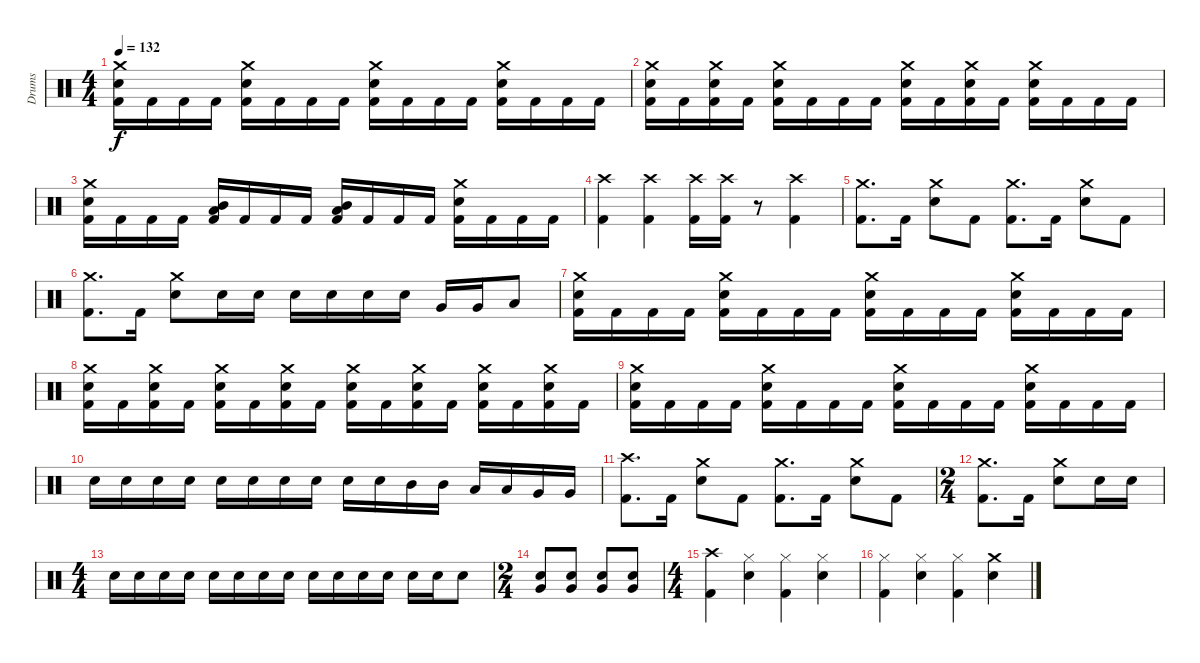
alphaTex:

\track ("Drums" "Drums") {instrument percussion}
\staff {score}
\articulation defaults
\ts (4 4)
\tempo 132
\clef neutral
\ks c
("Crash medium (hit)" "Snare (hit) 2" "Kick (hit) 2").16{dy f} "Kick (hit) 2".16 "Kick (hit) 2".16 "Kick (hit) 2".16 ("Crash medium (hit)" "Snare (hit) 2" "Kick (hit) 2").16 "Kick (hit) 2".16 "Kick (hit) 2".16 "Kick (hit) 2".16 ("Crash medium (hit)" "Snare (hit) 2" "Kick (hit) 2").16 "Kick (hit) 2".16 "Kick (hit) 2".16 "Kick (hit) 2".16 ("Crash medium (hit)" "Snare (hit) 2" "Kick (hit) 2").16 "Kick (hit) 2".16 "Kick (hit) 2".16 "Kick (hit) 2".16 |
("Crash medium (hit)" "Snare (hit) 2" "Kick (hit) 2").16 "Kick (hit) 2".16 ("Crash medium (hit)" "Snare (hit) 2" "Kick (hit) 2").16 "Kick (hit) 2".16 ("Crash medium (hit)" "Snare (hit) 2" "Kick (hit) 2").16 "Kick (hit) 2".16 "Kick (hit) 2".16 "Kick (hit) 2".16 ("Crash medium (hit)" "Snare (hit) 2" "Kick (hit) 2").16 "Kick (hit) 2".16 ("Crash medium (hit)" "Snare (hit) 2" "Kick (hit) 2").16 "Kick (hit) 2".16 ("Crash medium (hit)" "Snare (hit) 2" "Kick (hit) 2").16 "Kick (hit) 2".16 "Kick (hit) 2".16 "Kick (hit) 2".16 |
("Crash medium (hit)" "Snare (hit) 2" "Kick (hit) 2").16 "Kick (hit) 2".16 "Kick (hit) 2".16 "Kick (hit) 2".16 ("Mid Tom (hit)" "Low Tom (hit)" "Kick (hit) 2").16 "Kick (hit) 2".16 "Kick (hit) 2".16 "Kick (hit) 2".16 ("Mid Tom (hit)" "Low Tom (hit)" "Kick (hit) 2").16 "Kick (hit) 2".16 "Kick (hit) 2".16 "Kick (hit) 2".16 ("Crash medium (hit)" "Snare (hit) 2" "Kick (hit) 2").16 "Kick (hit) 2".16 "Kick (hit) 2".16 "Kick (hit) 2".16 |
("Crash high (hit)" "Kick (hit) 2").4 ("Crash high (hit)" "Kick (hit) 2").4 ("Crash high (hit)" "Kick (hit) 2").16 ("Crash high (hit)" "Kick (hit) 2").16 r.8 ("Crash high (hit)" "Kick (hit) 2").4 |
("Crash medium (hit)" "Kick (hit) 2").8{d} "Kick (hit) 2".16 ("Crash medium (hit)" "Snare (hit) 2").8 "Kick (hit) 2".8 ("Crash medium (hit)" "Kick (hit) 2").8{d} "Kick (hit) 2".16 ("Crash medium (hit)" "Snare (hit) 2").8 "Kick (hit) 2".8 |
("Crash medium (hit)" "Kick (hit) 2").8{d} "Kick (hit) 2".16 ("Crash medium (hit)" "Snare (hit) 2").8 "Snare (hit) 2".16 "Snare (hit) 2".16 "Snare (hit) 2".16 "Snare (hit) 2".16 "Snare (hit) 2".16 "Snare (hit) 2".16 "Very Low Tom (hit)".16 "Very Low Tom (hit)".16 "Low Floor Tom (hit)".8 |
("Crash medium (hit)" "Snare (hit) 2" "Kick (hit) 2").16 "Kick (hit) 2".16 "Kick (hit) 2".16 "Kick (hit) 2".16 ("Crash medium (hit)" "Snare (hit) 2" "Kick (hit) 2").16 "Kick (hit) 2".16 "Kick (hit) 2".16 "Kick (hit) 2".16 ("Crash medium (hit)" "Snare (hit) 2" "Kick (hit) 2").16 "Kick (hit) 2".16 "Kick (hit) 2".16 "Kick (hit) 2".16 ("Crash medium (hit)" "Snare (hit) 2" "Kick (hit) 2").16 "Kick (hit) 2".16 "Kick (hit) 2".16 "Kick (hit) 2".16 |
("Crash medium (hit)" "Snare (hit) 2" "Kick (hit) 2").16 "Kick (hit) 2".16 ("Crash medium (hit)" "Snare (hit) 2" "Kick (hit) 2").16 "Kick (hit) 2".16 ("Crash medium (hit)" "Snare (hit) 2" "Kick (hit) 2").16 "Kick (hit) 2".16 ("Crash medium (hit)" "Snare (hit) 2" "Kick (hit) 2").16 "Kick (hit) 2".16 ("Crash medium (hit)" "Snare (hit) 2" "Kick (hit) 2").16 "Kick (hit) 2".16 ("Crash medium (hit)" "Snare (hit) 2" "Kick (hit) 2").16 "Kick (hit) 2".16 ("Crash medium (hit)" "Snare (hit) 2" "Kick (hit) 2").16 "Kick (hit) 2".16 ("Crash medium (hit)" "Snare (hit) 2" "Kick (hit) 2").16 "Kick (hit) 2".16 |
("Crash medium (hit)" "Snare (hit) 2" "Kick (hit) 2").16 "Kick (hit) 2".16 "Kick (hit) 2".16 "Kick (hit) 2".16 ("Crash medium (hit)" "Snare (hit) 2" "Kick (hit) 2").16 "Kick (hit) 2".16 "Kick (hit) 2".16 "Kick (hit) 2".16 ("Crash medium (hit)" "Snare (hit) 2" "Kick (hit) 2").16 "Kick (hit) 2".16 "Kick (hit) 2".16 "Kick (hit) 2".16 ("Crash medium (hit)" "Snare (hit) 2" "Kick (hit) 2").16 "Kick (hit) 2".16 "Kick (hit) 2".16 "Kick (hit) 2".16 |
"Snare (hit) 2".16 "Snare (hit) 2".16 "Snare (hit) 2".16 "Snare (hit) 2".16 "Snare (hit) 2".16 "Snare (hit) 2".16 "Snare (hit) 2".16 "Snare (hit) 2".16 "Snare (hit) 2".16 "Snare (hit) 2".16 "Mid Tom (hit)".16 "Mid Tom (hit)".16 "Low Tom (hit)".16 "Low Tom (hit)".16 "Very Low Tom (hit)".16 "Very Low Tom (hit)".16 |
("Crash high (hit)" "Kick (hit) 2").8{d} "Kick (hit) 2".16 ("Crash medium (hit)" "Snare (hit) 2").8 "Kick (hit) 2".8 ("Crash medium (hit)" "Kick (hit) 2").8{d} "Kick (hit) 2".16 ("Crash medium (hit)" "Snare (hit) 2").8 "Kick (hit) 2".8 |
\ts (2 4)
("Crash medium (hit)" "Kick (hit) 2").8{d} "Kick (hit) 2".16 ("Crash medium (hit)" "Snare (hit) 2").8 "Snare (hit) 2".16 "Snare (hit) 2".16 |
\ts (4 4)
"Snare (hit) 2".16 "Snare (hit) 2".16 "Snare (hit) 2".16 "Snare (hit) 2".16 "Snare (hit) 2".16 "Snare (hit) 2".16 "Snare (hit) 2".16 "Snare (hit) 2".16 "Snare (hit) 2".16 "Snare (hit) 2".16 "Snare (hit) 2".16 "Snare (hit) 2".16 "Snare (hit) 2".16 "Snare (hit) 2".16 "Snare (hit) 2".8 |
\ts (2 4)
("Very Low Tom (hit)" "Snare (hit) 2").8 ("Very Low Tom (hit)" "Snare (hit) 2").8 ("Very Low Tom (hit)" "Snare (hit) 2").8 ("Very Low Tom (hit)" "Snare (hit) 2").8 |
\ts (4 4)
("Crash high (hit)" "Kick (hit) 2").4 ("Hi-Hat (closed)" "Snare (hit) 2").4 ("Hi-Hat (closed)" "Kick (hit) 2").4 ("Hi-Hat (closed)" "Snare (hit) 2").4 |
("Hi-Hat (closed)" "Kick (hit) 2").4 ("Hi-Hat (closed)" "Snare (hit) 2").4 ("Hi-Hat (closed)" "Kick (hit) 2").4 ("Crash medium (hit)" "Snare (hit) 2").4
